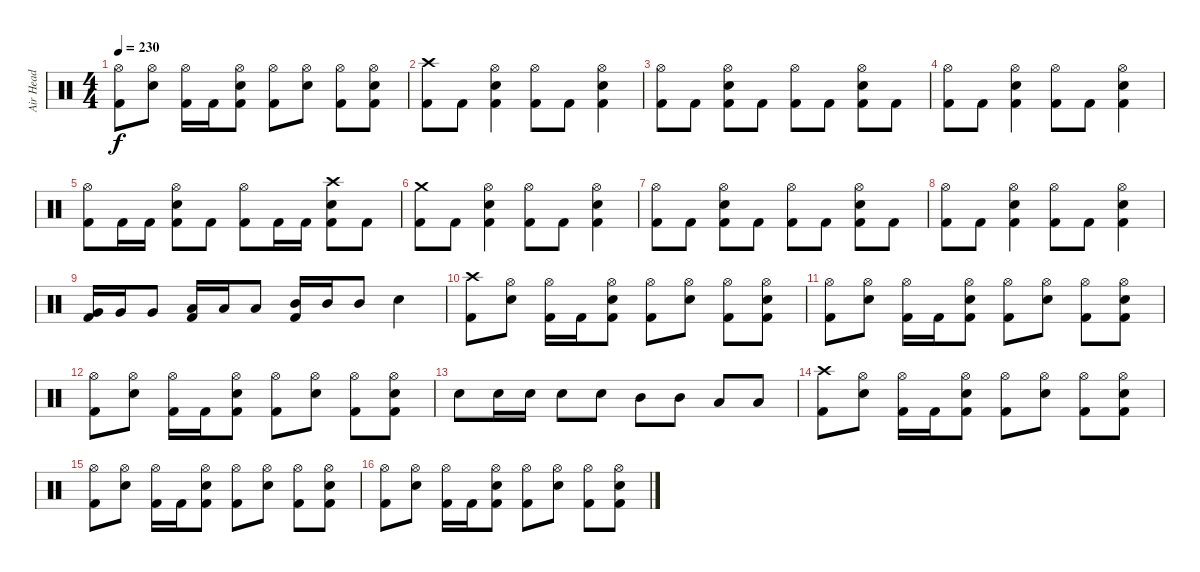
\track ("Air Head" "Air Head") {instrument percussion}
\staff {score}
\articulation defaults
\ts (4 4)
\tempo 230
\clef neutral
\ks c
("Hi-Hat (open)" "Kick (hit) 2").8{dy f} ("Hi-Hat (open)" "Snare (hit) 2").8 ("Hi-Hat (open)" "Kick (hit) 2").16 "Kick (hit) 2".16 ("Hi-Hat (open)" "Snare (hit) 2" "Kick (hit) 2").8 ("Hi-Hat (open)" "Kick (hit) 2").8 ("Hi-Hat (open)" "Snare (hit) 2").8 ("Hi-Hat (open)" "Kick (hit) 2").8 ("Hi-Hat (open)" "Snare (hit) 2" "Kick (hit) 2").8 |
("Crash high (hit)" "Kick (hit) 2").8 "Kick (hit) 2".8 ("Hi-Hat (open)" "Snare (hit) 2" "Kick (hit) 2").4 ("Hi-Hat (open)" "Kick (hit) 2").8 "Kick (hit) 2".8 ("Hi-Hat (open)" "Snare (hit) 2" "Kick (hit) 2").4 |
("Hi-Hat (open)" "Kick (hit) 2").8 "Kick (hit) 2".8 ("Hi-Hat (open)" "Snare (hit) 2" "Kick (hit) 2").8 "Kick (hit) 2".8 ("Hi-Hat (open)" "Kick (hit) 2").8 "Kick (hit) 2".8 ("Hi-Hat (open)" "Snare (hit) 2" "Kick (hit) 2").8 "Kick (hit) 2".8 |
("Hi-Hat (open)" "Kick (hit) 2").8 "Kick (hit) 2".8 ("Hi-Hat (open)" "Snare (hit) 2" "Kick (hit) 2").4 ("Hi-Hat (open)" "Kick (hit) 2").8 "Kick (hit) 2".8 ("Hi-Hat (open)" "Snare (hit) 2" "Kick (hit) 2").4 |
("Hi-Hat (open)" "Kick (hit) 2").8 "Kick (hit) 2".16 "Kick (hit) 2".16 ("Hi-Hat (open)" "Snare (hit) 2" "Kick (hit) 2").8 "Kick (hit) 2".8 ("Hi-Hat (open)" "Kick (hit) 2").8 "Kick (hit) 2".16 "Kick (hit) 2".16 ("Crash high (hit)" "Snare (hit) 2" "Kick (hit) 2").8 "Kick (hit) 2".8 |
("Crash medium (hit)" "Kick (hit) 2").8 "Kick (hit) 2".8 ("Hi-Hat (open)" "Snare (hit) 2" "Kick (hit) 2").4 ("Hi-Hat (open)" "Kick (hit) 2").8 "Kick (hit) 2".8 ("Hi-Hat (open)" "Snare (hit) 2" "Kick (hit) 2").4 |
("Hi-Hat (open)" "Kick (hit) 2").8 "Kick (hit) 2".8 ("Hi-Hat (open)" "Snare (hit) 2" "Kick (hit) 2").8 "Kick (hit) 2".8 ("Hi-Hat (open)" "Kick (hit) 2").8 "Kick (hit) 2".8 ("Hi-Hat (open)" "Snare (hit) 2" "Kick (hit) 2").8 "Kick (hit) 2".8 |
("Hi-Hat (open)" "Kick (hit) 2").8 "Kick (hit) 2".8 ("Hi-Hat (open)" "Snare (hit) 2" "Kick (hit) 2").4 ("Hi-Hat (open)" "Kick (hit) 2").8 "Kick (hit) 2".8 ("Hi-Hat (open)" "Snare (hit) 2" "Kick (hit) 2").4 |
("Very Low Tom (hit)" "Kick (hit) 2").16 "Very Low Tom (hit)".16 "Very Low Tom (hit)".8 ("Low Tom (hit)" "Kick (hit) 2").16 "Low Tom (hit)".16 "Low Tom (hit)".8 ("Mid Tom (hit)" "Kick (hit) 2").16 "Mid Tom (hit)".16 "Mid Tom (hit)".8 "Snare (hit) 2".4 |
("Crash high (hit)" "Kick (hit) 2").8 ("Hi-Hat (open)" "Snare (hit) 2").8 ("Hi-Hat (open)" "Kick (hit) 2").16 "Kick (hit) 2".16 ("Hi-Hat (open)" "Snare (hit) 2" "Kick (hit) 2").8 ("Hi-Hat (open)" "Kick (hit) 2").8 ("Hi-Hat (open)" "Snare (hit) 2").8 ("Hi-Hat (open)" "Kick (hit) 2").8 ("Hi-Hat (open)" "Snare (hit) 2" "Kick (hit) 2").8 |
("Hi-Hat (open)" "Kick (hit) 2").8 ("Hi-Hat (open)" "Snare (hit) 2").8 ("Hi-Hat (open)" "Kick (hit) 2").16 "Kick (hit) 2".16 ("Hi-Hat (open)" "Snare (hit) 2" "Kick (hit) 2").8 ("Hi-Hat (open)" "Kick (hit) 2").8 ("Hi-Hat (open)" "Snare (hit) 2").8 ("Hi-Hat (open)" "Kick (hit) 2").8 ("Hi-Hat (open)" "Snare (hit) 2" "Kick (hit) 2").8 |
("Hi-Hat (open)" "Kick (hit) 2").8 ("Hi-Hat (open)" "Snare (hit) 2").8 ("Hi-Hat (open)" "Kick (hit) 2").16 "Kick (hit) 2".16 ("Hi-Hat (open)" "Snare (hit) 2" "Kick (hit) 2").8 ("Hi-Hat (open)" "Kick (hit) 2").8 ("Hi-Hat (open)" "Snare (hit) 2").8 ("Hi-Hat (open)" "Kick (hit) 2").8 ("Hi-Hat (open)" "Snare (hit) 2" "Kick (hit) 2").8 |
"Snare (hit) 2".8 "Snare (hit) 2".16 "Snare (hit) 2".16 "Snare (hit) 2".8 "Snare (hit) 2".8 "Mid Tom (hit)".8 "Mid Tom (hit)".8 "Low Tom (hit)".8 "Low Tom (hit)".8 |
("Crash high (hit)" "Kick (hit) 2").8 ("Hi-Hat (open)" "Snare (hit) 2").8 ("Hi-Hat (open)" "Kick (hit) 2").16 "Kick (hit) 2".16 ("Hi-Hat (open)" "Snare (hit) 2" "Kick (hit) 2").8 ("Hi-Hat (open)" "Kick (hit) 2").8 ("Hi-Hat (open)" "Snare (hit) 2").8 ("Hi-Hat (open)" "Kick (hit) 2").8 ("Hi-Hat (open)" "Snare (hit) 2" "Kick (hit) 2").8 |
("Hi-Hat (open)" "Kick (hit) 2").8 ("Hi-Hat (open)" "Snare (hit) 2").8 ("Hi-Hat (open)" "Kick (hit) 2").16 "Kick (hit) 2".16 ("Hi-Hat (open)" "Snare (hit) 2" "Kick (hit) 2").8 ("Hi-Hat (open)" "Kick (hit) 2").8 ("Hi-Hat (open)" "Snare (hit) 2").8 ("Hi-Hat (open)" "Kick (hit) 2").8 ("Hi-Hat (open)" "Snare (hit) 2" "Kick (hit) 2").8 |
("Hi-Hat (open)" "Kick (hit) 2").8 ("Hi-Hat (open)" "Snare (hit) 2").8 ("Hi-Hat (open)" "Kick (hit) 2").16 "Kick (hit) 2".16 ("Hi-Hat (open)" "Snare (hit) 2" "Kick (hit) 2").8 ("Hi-Hat (open)" "Kick (hit) 2").8 ("Hi-Hat (open)" "Snare (hit) 2").8 ("Hi-Hat (open)" "Kick (hit) 2").8 ("Hi-Hat (open)" "Snare (hit) 2" "Kick (hit) 2").8
